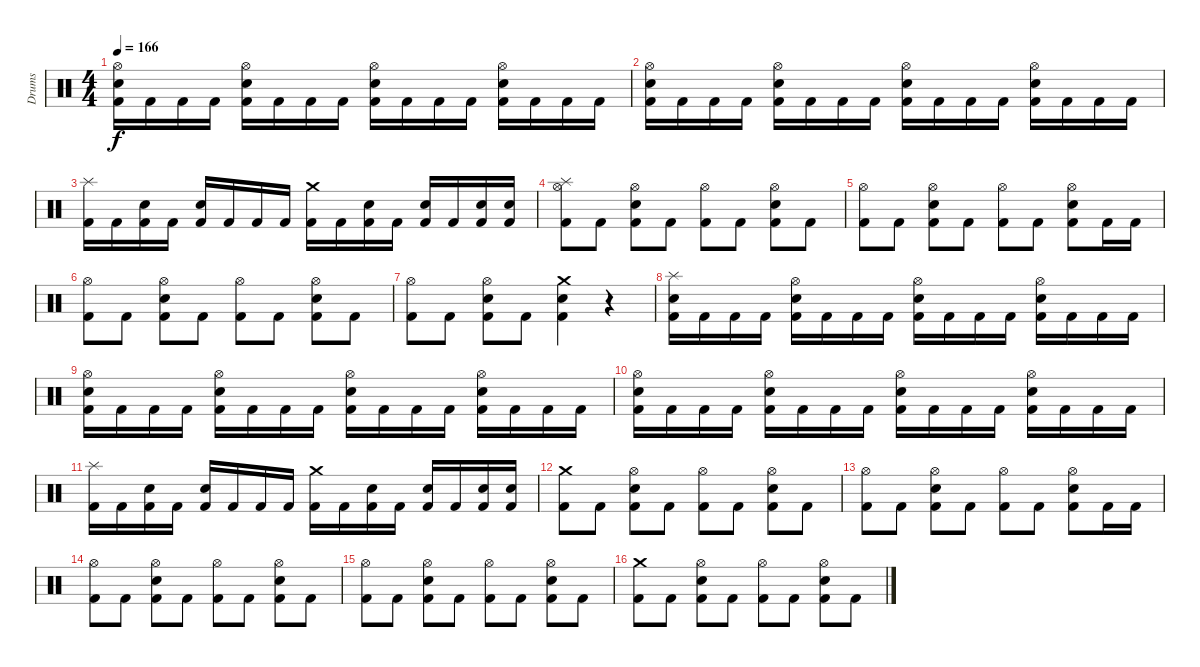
\track ("Drums" "Drums") {instrument percussion}
\staff {score}
\articulation defaults
\ts (4 4)
\tempo 166
\clef neutral
\ks c
("Kick (hit) 2" "Electric Snare (hit)" "Hi-Hat (open)").16{dy f} "Kick (hit) 2".16 "Kick (hit) 2".16 "Kick (hit) 2".16 ("Kick (hit) 2" "Electric Snare (hit)" "Hi-Hat (open)").16 "Kick (hit) 2".16 "Kick (hit) 2".16 "Kick (hit) 2".16 ("Kick (hit) 2" "Electric Snare (hit)" "Hi-Hat (open)").16 "Kick (hit) 2".16 "Kick (hit) 2".16 "Kick (hit) 2".16 ("Kick (hit) 2" "Electric Snare (hit)" "Hi-Hat (open)").16 "Kick (hit) 2".16 "Kick (hit) 2".16 "Kick (hit) 2".16 |
("Kick (hit) 2" "Electric Snare (hit)" "Hi-Hat (open)").16 "Kick (hit) 2".16 "Kick (hit) 2".16 "Kick (hit) 2".16 ("Kick (hit) 2" "Electric Snare (hit)" "Hi-Hat (open)").16 "Kick (hit) 2".16 "Kick (hit) 2".16 "Kick (hit) 2".16 ("Kick (hit) 2" "Electric Snare (hit)" "Hi-Hat (open)").16 "Kick (hit) 2".16 "Kick (hit) 2".16 "Kick (hit) 2".16 ("Kick (hit) 2" "Electric Snare (hit)" "Hi-Hat (open)").16 "Kick (hit) 2".16 "Kick (hit) 2".16 "Kick (hit) 2".16 |
("Kick (hit) 2" "Splash (hit)").16 "Kick (hit) 2".16 ("Kick (hit) 2" "Electric Snare (hit)").16 "Kick (hit) 2".16 ("Kick (hit) 2" "Electric Snare (hit)").16 "Kick (hit) 2".16 "Kick (hit) 2".16 "Kick (hit) 2".16 ("Kick (hit) 2" "Crash medium (hit)").16 "Kick (hit) 2".16 ("Kick (hit) 2" "Electric Snare (hit)").16 "Kick (hit) 2".16 ("Kick (hit) 2" "Electric Snare (hit)").16 "Kick (hit) 2".16 ("Kick (hit) 2" "Electric Snare (hit)").16 ("Kick (hit) 2" "Electric Snare (hit)").16 |
\section ("" "")
("Kick (hit) 2" "Hi-Hat (open)" "Splash (hit)").8 "Kick (hit) 2".8 ("Kick (hit) 2" "Electric Snare (hit)" "Hi-Hat (open)").8 "Kick (hit) 2".8 ("Kick (hit) 2" "Hi-Hat (open)").8 "Kick (hit) 2".8 ("Kick (hit) 2" "Electric Snare (hit)" "Hi-Hat (open)").8 "Kick (hit) 2".8 |
("Kick (hit) 2" "Hi-Hat (open)").8 "Kick (hit) 2".8 ("Kick (hit) 2" "Electric Snare (hit)" "Hi-Hat (open)").8 "Kick (hit) 2".8 ("Kick (hit) 2" "Hi-Hat (open)").8 "Kick (hit) 2".8 ("Kick (hit) 2" "Electric Snare (hit)" "Hi-Hat (open)").8 "Kick (hit) 2".16 "Kick (hit) 2".16 |
("Kick (hit) 2" "Hi-Hat (open)").8 "Kick (hit) 2".8 ("Kick (hit) 2" "Electric Snare (hit)" "Hi-Hat (open)").8 "Kick (hit) 2".8 ("Kick (hit) 2" "Hi-Hat (open)").8 "Kick (hit) 2".8 ("Kick (hit) 2" "Electric Snare (hit)" "Hi-Hat (open)").8 "Kick (hit) 2".8 |
("Kick (hit) 2" "Hi-Hat (open)").8 "Kick (hit) 2".8 ("Kick (hit) 2" "Electric Snare (hit)" "Hi-Hat (open)").8 "Kick (hit) 2".8 ("Kick (hit) 2" "Electric Snare (hit)" "Crash medium (hit)").4 r.4 |
("Kick (hit) 2" "Electric Snare (hit)" "Splash (hit)").16 "Kick (hit) 2".16 "Kick (hit) 2".16 "Kick (hit) 2".16 ("Kick (hit) 2" "Electric Snare (hit)" "Hi-Hat (open)").16 "Kick (hit) 2".16 "Kick (hit) 2".16 "Kick (hit) 2".16 ("Kick (hit) 2" "Electric Snare (hit)" "Hi-Hat (open)").16 "Kick (hit) 2".16 "Kick (hit) 2".16 "Kick (hit) 2".16 ("Kick (hit) 2" "Electric Snare (hit)" "Hi-Hat (open)").16 "Kick (hit) 2".16 "Kick (hit) 2".16 "Kick (hit) 2".16 |
("Kick (hit) 2" "Electric Snare (hit)" "Hi-Hat (open)").16 "Kick (hit) 2".16 "Kick (hit) 2".16 "Kick (hit) 2".16 ("Kick (hit) 2" "Electric Snare (hit)" "Hi-Hat (open)").16 "Kick (hit) 2".16 "Kick (hit) 2".16 "Kick (hit) 2".16 ("Kick (hit) 2" "Electric Snare (hit)" "Hi-Hat (open)").16 "Kick (hit) 2".16 "Kick (hit) 2".16 "Kick (hit) 2".16 ("Kick (hit) 2" "Electric Snare (hit)" "Hi-Hat (open)").16 "Kick (hit) 2".16 "Kick (hit) 2".16 "Kick (hit) 2".16 |
("Kick (hit) 2" "Electric Snare (hit)" "Hi-Hat (open)").16 "Kick (hit) 2".16 "Kick (hit) 2".16 "Kick (hit) 2".16 ("Kick (hit) 2" "Electric Snare (hit)" "Hi-Hat (open)").16 "Kick (hit) 2".16 "Kick (hit) 2".16 "Kick (hit) 2".16 ("Kick (hit) 2" "Electric Snare (hit)" "Hi-Hat (open)").16 "Kick (hit) 2".16 "Kick (hit) 2".16 "Kick (hit) 2".16 ("Kick (hit) 2" "Electric Snare (hit)" "Hi-Hat (open)").16 "Kick (hit) 2".16 "Kick (hit) 2".16 "Kick (hit) 2".16 |
("Kick (hit) 2" "Splash (hit)").16 "Kick (hit) 2".16 ("Kick (hit) 2" "Electric Snare (hit)").16 "Kick (hit) 2".16 ("Kick (hit) 2" "Electric Snare (hit)").16 "Kick (hit) 2".16 "Kick (hit) 2".16 "Kick (hit) 2".16 ("Kick (hit) 2" "Crash medium (hit)").16 "Kick (hit) 2".16 ("Kick (hit) 2" "Electric Snare (hit)").16 "Kick (hit) 2".16 ("Kick (hit) 2" "Electric Snare (hit)").16 "Kick (hit) 2".16 ("Kick (hit) 2" "Electric Snare (hit)").16 ("Kick (hit) 2" "Electric Snare (hit)").16 |
\section ("" "")
("Kick (hit) 2" "Crash medium (hit)").8 "Kick (hit) 2".8 ("Kick (hit) 2" "Electric Snare (hit)" "Hi-Hat (open)").8 "Kick (hit) 2".8 ("Kick (hit) 2" "Hi-Hat (open)").8 "Kick (hit) 2".8 ("Kick (hit) 2" "Electric Snare (hit)" "Hi-Hat (open)").8 "Kick (hit) 2".8 |
("Kick (hit) 2" "Hi-Hat (open)").8 "Kick (hit) 2".8 ("Kick (hit) 2" "Electric Snare (hit)" "Hi-Hat (open)").8 "Kick (hit) 2".8 ("Kick (hit) 2" "Hi-Hat (open)").8 "Kick (hit) 2".8 ("Kick (hit) 2" "Electric Snare (hit)" "Hi-Hat (open)").8 "Kick (hit) 2".16 "Kick (hit) 2".16 |
("Kick (hit) 2" "Hi-Hat (open)").8 "Kick (hit) 2".8 ("Kick (hit) 2" "Electric Snare (hit)" "Hi-Hat (open)").8 "Kick (hit) 2".8 ("Kick (hit) 2" "Hi-Hat (open)").8 "Kick (hit) 2".8 ("Kick (hit) 2" "Electric Snare (hit)" "Hi-Hat (open)").8 "Kick (hit) 2".8 |
("Kick (hit) 2" "Hi-Hat (open)").8 "Kick (hit) 2".8 ("Kick (hit) 2" "Electric Snare (hit)" "Hi-Hat (open)").8 "Kick (hit) 2".8 ("Kick (hit) 2" "Hi-Hat (open)").8 "Kick (hit) 2".8 ("Kick (hit) 2" "Electric Snare (hit)" "Hi-Hat (open)").8 "Kick (hit) 2".8 |
("Kick (hit) 2" "Crash medium (hit)").8 "Kick (hit) 2".8 ("Kick (hit) 2" "Electric Snare (hit)" "Hi-Hat (open)").8 "Kick (hit) 2".8 ("Kick (hit) 2" "Hi-Hat (open)").8 "Kick (hit) 2".8 ("Kick (hit) 2" "Electric Snare (hit)" "Hi-Hat (open)").8 "Kick (hit) 2".8
